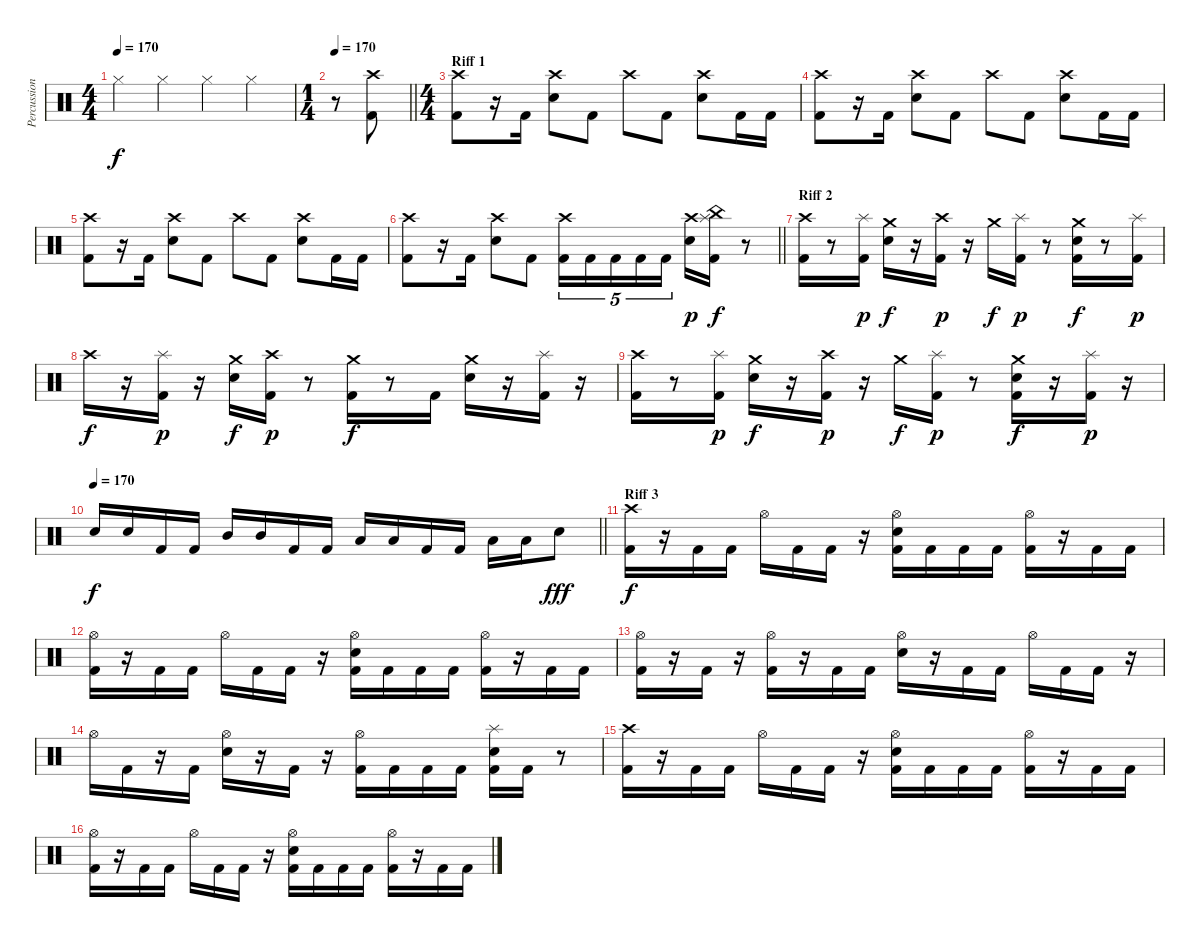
\track ("Percussion" "Percussion") {instrument percussion}
\staff {score}
\articulation defaults
\ts (4 4)
\tempo 170
\clef neutral
\ks c "Hi-Hat (closed)".4{dy f} "Hi-Hat (closed)".4 "Hi-Hat (closed)".4 "Hi-Hat (closed)".4
|
\ts (1 4)
\tempo 170
\barLineRight lightlight
r.8 ("Kick (hit) 2" "Crash high (hit)").8 |
\ts (4 4)
\section ("" "Riff 1")
("Kick (hit) 2" "Crash high (hit)").8 r.16 "Kick (hit) 2".16 ("Snare (hit) 2" "Crash high (hit)").8 "Kick (hit) 2".8 "Crash high (hit)".8 "Kick (hit) 2".8 ("Snare (hit) 2" "Crash high (hit)").8 "Kick (hit) 2".16 "Kick (hit) 2".16 |
("Kick (hit) 2" "Crash high (hit)").8 r.16 "Kick (hit) 2".16 ("Snare (hit) 2" "Crash high (hit)").8 "Kick (hit) 2".8 "Crash high (hit)".8 "Kick (hit) 2".8 ("Snare (hit) 2" "Crash high (hit)").8 "Kick (hit) 2".16 "Kick (hit) 2".16 |
("Kick (hit) 2" "Crash high (hit)").8 r.16 "Kick (hit) 2".16 ("Snare (hit) 2" "Crash high (hit)").8 "Kick (hit) 2".8 "Crash high (hit)".8 "Kick (hit) 2".8 ("Snare (hit) 2" "Crash high (hit)").8 "Kick (hit) 2".16 "Kick (hit) 2".16 |
\barLineRight lightlight
("Kick (hit) 2" "Crash high (hit)").8 r.16 "Kick (hit) 2".16 ("Snare (hit) 2" "Crash high (hit)").8 "Kick (hit) 2".8 ("Kick (hit) 2" "Crash high (hit)").16{tu (5 4)} "Kick (hit) 2".16{tu (5 4)} "Kick (hit) 2".16{tu (5 4)} "Kick (hit) 2".16{tu (5 4)} "Kick (hit) 2".16{tu (5 4)} ("Snare (hit) 2" "Crash high (hit)").16{dy p} ("Kick (hit) 2" "China (hit)" "Splash (hit)").16{dy f} r.8 |
\section ("" "Riff 2")
("Kick (hit) 2" "Crash high (hit)").16 r.8 ("Kick (hit) 2" "Splash (hit)").16{dy p} ("Snare (hit) 2" "Crash medium (hit)").16{dy f} r.16 ("Kick (hit) 2" "Crash high (hit)").16{dy p} r.16 "Crash medium (hit)".16{dy f} ("Kick (hit) 2" "Splash (hit)").16{dy p} r.8 ("Kick (hit) 2" "Snare (hit) 2" "Crash medium (hit)").16{dy f} r.8 ("Kick (hit) 2" "Splash (hit)").16{dy p} |
"Crash high (hit)".16{dy f} r.16 ("Kick (hit) 2" "Splash (hit)").16{dy p} r.16 ("Snare (hit) 2" "Crash medium (hit)").16{dy f} ("Kick (hit) 2" "Crash high (hit)").16{dy p} r.8 ("Kick (hit) 2" "Crash medium (hit)").16{dy f} r.8 "Kick (hit) 2".16 ("Snare (hit) 2" "Crash medium (hit)").16 r.16 ("Kick (hit) 2" "Splash (hit)").16 r.16 |
("Kick (hit) 2" "Crash high (hit)").16 r.8 ("Kick (hit) 2" "Splash (hit)").16{dy p} ("Snare (hit) 2" "Crash medium (hit)").16{dy f} r.16 ("Kick (hit) 2" "Crash high (hit)").16{dy p} r.16 "Crash medium (hit)".16{dy f} ("Kick (hit) 2" "Splash (hit)").16{dy p} r.8 ("Kick (hit) 2" "Snare (hit) 2" "Crash medium (hit)").16{dy f} r.16 ("Kick (hit) 2" "Splash (hit)").16{dy p} r.16 |
\tempo 170
\barLineRight lightlight "Snare (hit) 2".16{dy f} "Snare (hit) 2".16 "Kick (hit) 2".16 "Kick (hit) 2".16 "Mid Tom (hit)".16 "Mid Tom (hit)".16 "Kick (hit) 2".16 "Kick (hit) 2".16 "Low Tom (hit)".16 "Low Tom (hit)".16 "Kick (hit) 2".16 "Kick (hit) 2".16 "Low Tom (hit)".16 "Low Floor Tom (hit)".16 "Snare (hit) 2".8{dy fff}
|
\section ("" "Riff 3")
("Kick (hit) 2" "Crash high (hit)").16{dy f} r.16 "Kick (hit) 2".16 "Kick (hit) 2".16 "Hi-Hat (open)".16 "Kick (hit) 2".16 "Kick (hit) 2".16 r.16 ("Kick (hit) 2" "Snare (hit) 2" "Hi-Hat (open)").16 "Kick (hit) 2".16 "Kick (hit) 2".16 "Kick (hit) 2".16 ("Kick (hit) 2" "Hi-Hat (open)").16 r.16 "Kick (hit) 2".16 "Kick (hit) 2".16 |
("Kick (hit) 2" "Hi-Hat (open)").16 r.16 "Kick (hit) 2".16 "Kick (hit) 2".16 "Hi-Hat (open)".16 "Kick (hit) 2".16 "Kick (hit) 2".16 r.16 ("Kick (hit) 2" "Snare (hit) 2" "Hi-Hat (open)").16 "Kick (hit) 2".16 "Kick (hit) 2".16 "Kick (hit) 2".16 ("Kick (hit) 2" "Hi-Hat (open)").16 r.16 "Kick (hit) 2".16 "Kick (hit) 2".16 |
("Kick (hit) 2" "Hi-Hat (open)").16 r.16 "Kick (hit) 2".16 r.16 ("Kick (hit) 2" "Hi-Hat (open)").16 r.16 "Kick (hit) 2".16 "Kick (hit) 2".16 ("Snare (hit) 2" "Hi-Hat (open)").16 r.16 "Kick (hit) 2".16 "Kick (hit) 2".16 "Hi-Hat (open)".16 "Kick (hit) 2".16 "Kick (hit) 2".16 r.16 |
"Hi-Hat (open)".16 "Kick (hit) 2".16 r.16 "Kick (hit) 2".16 ("Snare (hit) 2" "Hi-Hat (open)").16 r.16 "Kick (hit) 2".16 r.16 ("Kick (hit) 2" "Hi-Hat (open)").16 "Kick (hit) 2".16 "Kick (hit) 2".16 "Kick (hit) 2".16 ("Kick (hit) 2" "Snare (hit) 2" "Splash (hit)").16 "Kick (hit) 2".16 r.8 |
("Kick (hit) 2" "Crash high (hit)").16 r.16 "Kick (hit) 2".16 "Kick (hit) 2".16 "Hi-Hat (open)".16 "Kick (hit) 2".16 "Kick (hit) 2".16 r.16 ("Kick (hit) 2" "Snare (hit) 2" "Hi-Hat (open)").16 "Kick (hit) 2".16 "Kick (hit) 2".16 "Kick (hit) 2".16 ("Kick (hit) 2" "Hi-Hat (open)").16 r.16 "Kick (hit) 2".16 "Kick (hit) 2".16 |
("Kick (hit) 2" "Hi-Hat (open)").16 r.16 "Kick (hit) 2".16 "Kick (hit) 2".16 "Hi-Hat (open)".16 "Kick (hit) 2".16 "Kick (hit) 2".16 r.16 ("Kick (hit) 2" "Snare (hit) 2" "Hi-Hat (open)").16 "Kick (hit) 2".16 "Kick (hit) 2".16 "Kick (hit) 2".16 ("Kick (hit) 2" "Hi-Hat (open)").16 r.16 "Kick (hit) 2".16 "Kick (hit) 2".16
